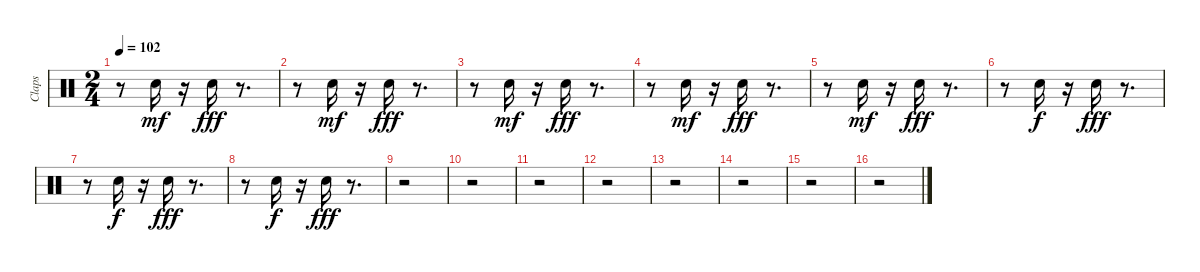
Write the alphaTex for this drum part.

\track ("Claps" "Claps") {instrument percussion}
\staff {score}
\articulation defaults
\ts (2 4)
\tempo 102
\clef neutral
\ks c
r.8{dy fff} "Hand Clap (hit)".16{dy mf} r.16 "Hand Clap (hit)".16{dy fff} r.8{d} |
r.8 "Hand Clap (hit)".16{dy mf} r.16 "Hand Clap (hit)".16{dy fff} r.8{d} |
r.8 "Hand Clap (hit)".16{dy mf} r.16 "Hand Clap (hit)".16{dy fff} r.8{d} |
r.8 "Hand Clap (hit)".16{dy mf} r.16 "Hand Clap (hit)".16{dy fff} r.8{d} |
r.8 "Hand Clap (hit)".16{dy mf} r.16 "Hand Clap (hit)".16{dy fff} r.8{d} |
r.8 "Hand Clap (hit)".16{dy f} r.16 "Hand Clap (hit)".16{dy fff} r.8{d} |
r.8 "Hand Clap (hit)".16{dy f} r.16 "Hand Clap (hit)".16{dy fff} r.8{d} |
r.8 "Hand Clap (hit)".16{dy f} r.16 "Hand Clap (hit)".16{dy fff} r.8{d} |
r.2 |
r.2 |
r.2 |
r.2 |
r.2 |
r.2 |
r.2 |
r.2
